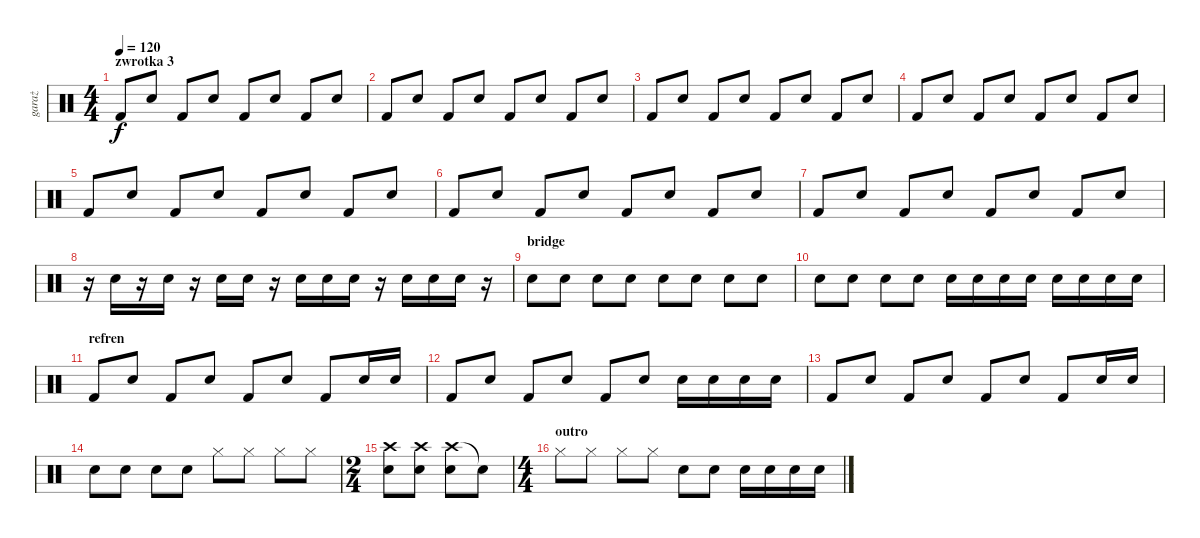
\track ("garaż" "garaż") {instrument percussion}
\staff {score}
\articulation defaults
\ts (4 4)
\section ("" "zwrotka 3")
\tempo 120
\clef neutral
\ks c "Kick (hit) 2".8{dy f} "Snare (hit) 2".8 "Kick (hit) 2".8 "Snare (hit) 2".8 "Kick (hit) 2".8 "Snare (hit) 2".8 "Kick (hit) 2".8 "Snare (hit) 2".8
|
"Kick (hit) 2".8 "Snare (hit) 2".8 "Kick (hit) 2".8 "Snare (hit) 2".8 "Kick (hit) 2".8 "Snare (hit) 2".8 "Kick (hit) 2".8 "Snare (hit) 2".8 |
"Kick (hit) 2".8 "Snare (hit) 2".8 "Kick (hit) 2".8 "Snare (hit) 2".8 "Kick (hit) 2".8 "Snare (hit) 2".8 "Kick (hit) 2".8 "Snare (hit) 2".8 |
"Kick (hit) 2".8 "Snare (hit) 2".8 "Kick (hit) 2".8 "Snare (hit) 2".8 "Kick (hit) 2".8 "Snare (hit) 2".8 "Kick (hit) 2".8 "Snare (hit) 2".8 |
"Kick (hit) 2".8 "Snare (hit) 2".8 "Kick (hit) 2".8 "Snare (hit) 2".8 "Kick (hit) 2".8 "Snare (hit) 2".8 "Kick (hit) 2".8 "Snare (hit) 2".8 |
"Kick (hit) 2".8 "Snare (hit) 2".8 "Kick (hit) 2".8 "Snare (hit) 2".8 "Kick (hit) 2".8 "Snare (hit) 2".8 "Kick (hit) 2".8 "Snare (hit) 2".8 |
"Kick (hit) 2".8 "Snare (hit) 2".8 "Kick (hit) 2".8 "Snare (hit) 2".8 "Kick (hit) 2".8 "Snare (hit) 2".8 "Kick (hit) 2".8 "Snare (hit) 2".8 |
r.16 "Snare (hit) 2".16 r.16 "Snare (hit) 2".16 r.16 "Snare (hit) 2".16 "Snare (hit) 2".16 r.16 "Snare (hit) 2".16 "Snare (hit) 2".16 "Snare (hit) 2".16 r.16 "Snare (hit) 2".16 "Snare (hit) 2".16 "Snare (hit) 2".16 r.16 |
\section ("" "bridge")
"Snare (hit) 2".8 "Snare (hit) 2".8 "Snare (hit) 2".8 "Snare (hit) 2".8 "Snare (hit) 2".8 "Snare (hit) 2".8 "Snare (hit) 2".8 "Snare (hit) 2".8 |
"Snare (hit) 2".8 "Snare (hit) 2".8 "Snare (hit) 2".8 "Snare (hit) 2".8 "Snare (hit) 2".16 "Snare (hit) 2".16 "Snare (hit) 2".16 "Snare (hit) 2".16 "Snare (hit) 2".16 "Snare (hit) 2".16 "Snare (hit) 2".16 "Snare (hit) 2".16 |
\section ("" "refren")
"Kick (hit) 2".8 "Snare (hit) 2".8 "Kick (hit) 2".8 "Snare (hit) 2".8 "Kick (hit) 2".8 "Snare (hit) 2".8 "Kick (hit) 2".8 "Snare (hit) 2".16 "Snare (hit) 2".16 |
"Kick (hit) 2".8 "Snare (hit) 2".8 "Kick (hit) 2".8 "Snare (hit) 2".8 "Kick (hit) 2".8 "Snare (hit) 2".8 "Snare (hit) 2".16 "Snare (hit) 2".16 "Snare (hit) 2".16 "Snare (hit) 2".16 |
"Kick (hit) 2".8 "Snare (hit) 2".8 "Kick (hit) 2".8 "Snare (hit) 2".8 "Kick (hit) 2".8 "Snare (hit) 2".8 "Kick (hit) 2".8 "Snare (hit) 2".16 "Snare (hit) 2".16 |
"Snare (hit) 2".8 "Snare (hit) 2".8 "Snare (hit) 2".8 "Snare (hit) 2".8 "Hi-Hat (closed)".8 "Hi-Hat (closed)".8 "Hi-Hat (closed)".8 "Hi-Hat (closed)".8 |
\ts (2 4)
("Crash high (hit)" "Snare (hit) 2").8 ("Crash high (hit)" "Snare (hit) 2").8 ("Crash high (hit)" "Snare (hit) 2").8 "Snare (hit)"{t}.8 |
\ts (4 4)
\section ("" "outro")
"Hi-Hat (closed)".8 "Hi-Hat (closed)".8 "Hi-Hat (closed)".8 "Hi-Hat (closed)".8 "Snare (hit) 2".8 "Snare (hit) 2".8 "Snare (hit) 2".16 "Snare (hit) 2".16 "Snare (hit) 2".16 "Snare (hit) 2".16
